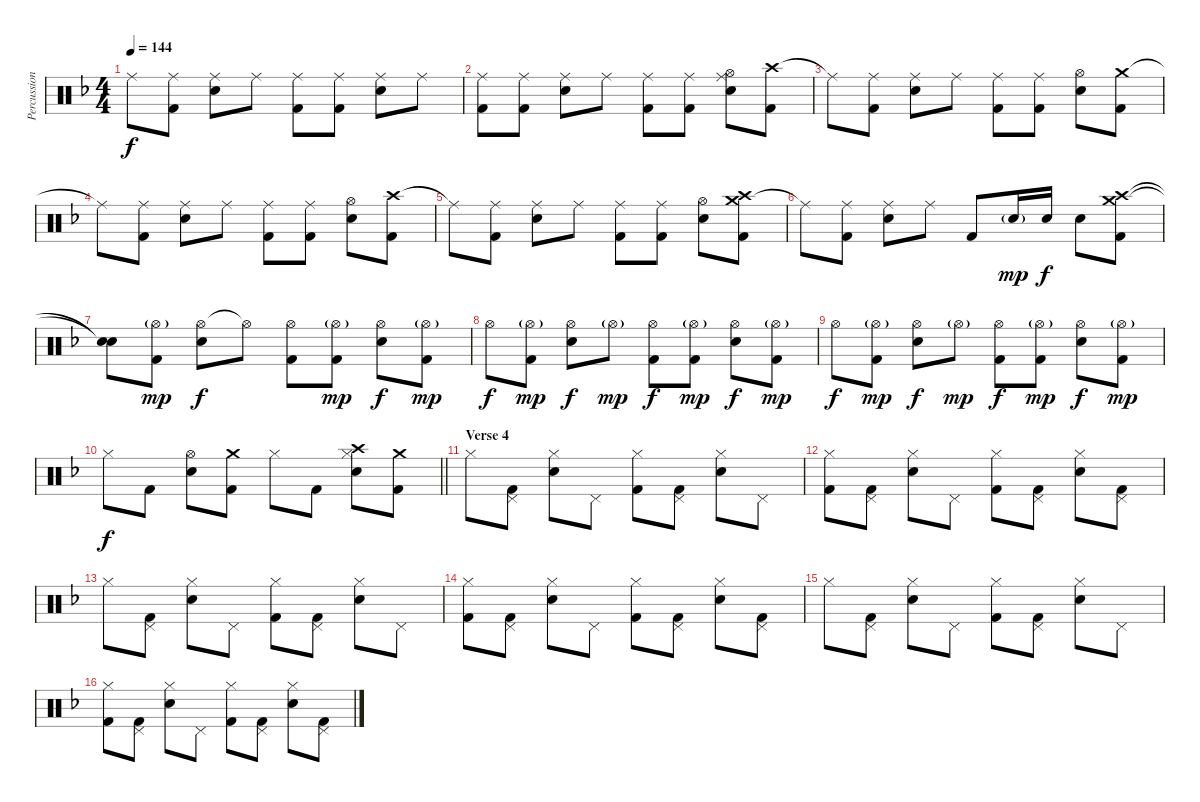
\track ("Percussion" "Percussion") {instrument percussion}
\staff {score}
\articulation defaults
\ts (4 4)
\tempo 144
\clef neutral
\ks f "Ride (middle)".8{dy f}
("Ride (middle)" "Kick (hit) 2").8 ("Ride (middle)" "Electric Snare (hit)").8 "Ride (middle)".8 ("Ride (middle)" "Kick (hit) 2").8 ("Ride (middle)" "Kick (hit) 2").8 ("Ride (middle)" "Electric Snare (hit)").8 "Ride (middle)".8 |
("Ride (middle)" "Kick (hit) 2").8 ("Ride (middle)" "Kick (hit) 2").8 ("Ride (middle)" "Electric Snare (hit)").8 "Ride (middle)".8 ("Ride (middle)" "Kick (hit) 2").8 ("Ride (middle)" "Kick (hit) 2").8 ("Ride (middle)" "Hi-Hat (open)" "Electric Snare (hit)").8 ("Crash high (hit)" "Kick (hit) 2").8 |
"Ride (middle)"{t}.8 ("Ride (middle)" "Kick (hit) 2").8 ("Ride (middle)" "Electric Snare (hit)").8 "Ride (middle)".8 ("Ride (middle)" "Kick (hit) 2").8 ("Ride (middle)" "Kick (hit) 2").8 ("Hi-Hat (open)" "Electric Snare (hit)").8 ("Crash medium (hit)" "Kick (hit) 2").8 |
"Ride (middle)"{t}.8 ("Ride (middle)" "Kick (hit) 2").8 ("Ride (middle)" "Electric Snare (hit)").8 "Ride (middle)".8 ("Ride (middle)" "Kick (hit) 2").8 ("Ride (middle)" "Kick (hit) 2").8 ("Hi-Hat (open)" "Electric Snare (hit)").8 ("Crash high (hit)" "Kick (hit) 2").8 |
"Ride (middle)"{t}.8 ("Ride (middle)" "Kick (hit) 2").8 ("Ride (middle)" "Electric Snare (hit)").8 "Ride (middle)".8 ("Ride (middle)" "Kick (hit) 2").8 ("Ride (middle)" "Kick (hit) 2").8 ("Hi-Hat (open)" "Electric Snare (hit)").8 ("Crash medium (hit)" "Crash high (hit)" "Kick (hit) 2").8 |
"Ride (middle)"{t}.8 ("Ride (middle)" "Kick (hit) 2").8 ("Ride (middle)" "Electric Snare (hit)").8 "Ride (middle)".8 "Kick (hit) 2".8 "Electric Snare (hit)"{g}.16{dy mp} "Electric Snare (hit)".16{dy f} "Electric Snare (hit)".8 ("Crash medium (hit)" "Crash high (hit)" "Kick (hit) 2").8 |
("Snare (hit)"{t} "Snare (hit)"{t}).8 ("Hi-Hat (open)"{g} "Kick (hit) 2").8{dy mp} ("Hi-Hat (open)" "Electric Snare (hit)").8{dy f} "Hi-Hat (open)"{t}.8 ("Hi-Hat (open)" "Kick (hit) 2").8 ("Hi-Hat (open)"{g} "Kick (hit) 2").8{dy mp} ("Hi-Hat (open)" "Electric Snare (hit)").8{dy f} ("Hi-Hat (open)"{g} "Kick (hit) 2").8{dy mp} |
"Hi-Hat (open)".8{dy f} ("Hi-Hat (open)"{g} "Kick (hit) 2").8{dy mp} ("Hi-Hat (open)" "Electric Snare (hit)").8{dy f} "Hi-Hat (open)"{g}.8{dy mp} ("Hi-Hat (open)" "Kick (hit) 2").8{dy f} ("Hi-Hat (open)"{g} "Kick (hit) 2").8{dy mp} ("Hi-Hat (open)" "Electric Snare (hit)").8{dy f} ("Hi-Hat (open)"{g} "Kick (hit) 2").8{dy mp} |
"Hi-Hat (open)".8{dy f} ("Hi-Hat (open)"{g} "Kick (hit) 2").8{dy mp} ("Hi-Hat (open)" "Electric Snare (hit)").8{dy f} "Hi-Hat (open)"{g}.8{dy mp} ("Hi-Hat (open)" "Kick (hit) 2").8{dy f} ("Hi-Hat (open)"{g} "Kick (hit) 2").8{dy mp} ("Hi-Hat (open)" "Electric Snare (hit)").8{dy f} ("Hi-Hat (open)"{g} "Kick (hit) 2").8{dy mp} |
\barLineRight lightlight "Hi-Hat (closed)".8{dy f} "Kick (hit) 2".8
("Hi-Hat (open)" "Electric Snare (hit)").8 ("Crash medium (hit)" "Kick (hit) 2").8 "Hi-Hat (closed)".8 "Kick (hit) 2".8 ("Crash high (hit)" "Hi-Hat (closed)" "Electric Snare (hit)").8 ("Crash medium (hit)" "Kick (hit) 2").8 |
\section ("" "Verse 4")
"Hi-Hat (closed)".8 ("Pedal Hi-Hat (hit)" "Kick (hit) 2").8 ("Electric Snare (hit)" "Hi-Hat (closed)").8 "Pedal Hi-Hat (hit)".8 ("Hi-Hat (closed)" "Kick (hit) 2").8 ("Pedal Hi-Hat (hit)" "Kick (hit) 2").8 ("Electric Snare (hit)" "Hi-Hat (closed)").8 "Pedal Hi-Hat (hit)".8 |
("Hi-Hat (closed)" "Kick (hit) 2").8 ("Pedal Hi-Hat (hit)" "Kick (hit) 2").8 ("Electric Snare (hit)" "Hi-Hat (closed)").8 "Pedal Hi-Hat (hit)".8 ("Hi-Hat (closed)" "Kick (hit) 2").8 ("Pedal Hi-Hat (hit)" "Kick (hit) 2").8 ("Electric Snare (hit)" "Hi-Hat (closed)").8 ("Pedal Hi-Hat (hit)" "Kick (hit) 2").8 |
"Hi-Hat (closed)".8 ("Pedal Hi-Hat (hit)" "Kick (hit) 2").8 ("Electric Snare (hit)" "Hi-Hat (closed)").8 "Pedal Hi-Hat (hit)".8 ("Hi-Hat (closed)" "Kick (hit) 2").8 ("Pedal Hi-Hat (hit)" "Kick (hit) 2").8 ("Electric Snare (hit)" "Hi-Hat (closed)").8 "Pedal Hi-Hat (hit)".8 |
("Hi-Hat (closed)" "Kick (hit) 2").8 ("Pedal Hi-Hat (hit)" "Kick (hit) 2").8 ("Electric Snare (hit)" "Hi-Hat (closed)").8 "Pedal Hi-Hat (hit)".8 ("Hi-Hat (closed)" "Kick (hit) 2").8 ("Pedal Hi-Hat (hit)" "Kick (hit) 2").8 ("Electric Snare (hit)" "Hi-Hat (closed)").8 ("Pedal Hi-Hat (hit)" "Kick (hit) 2").8 |
"Hi-Hat (closed)".8 ("Pedal Hi-Hat (hit)" "Kick (hit) 2").8 ("Electric Snare (hit)" "Hi-Hat (closed)").8 "Pedal Hi-Hat (hit)".8 ("Hi-Hat (closed)" "Kick (hit) 2").8 ("Pedal Hi-Hat (hit)" "Kick (hit) 2").8 ("Electric Snare (hit)" "Hi-Hat (closed)").8 "Pedal Hi-Hat (hit)".8 |
("Hi-Hat (closed)" "Kick (hit) 2").8 ("Pedal Hi-Hat (hit)" "Kick (hit) 2").8 ("Electric Snare (hit)" "Hi-Hat (closed)").8 "Pedal Hi-Hat (hit)".8 ("Hi-Hat (closed)" "Kick (hit) 2").8 ("Pedal Hi-Hat (hit)" "Kick (hit) 2").8 ("Electric Snare (hit)" "Hi-Hat (closed)").8 ("Pedal Hi-Hat (hit)" "Kick (hit) 2").8
